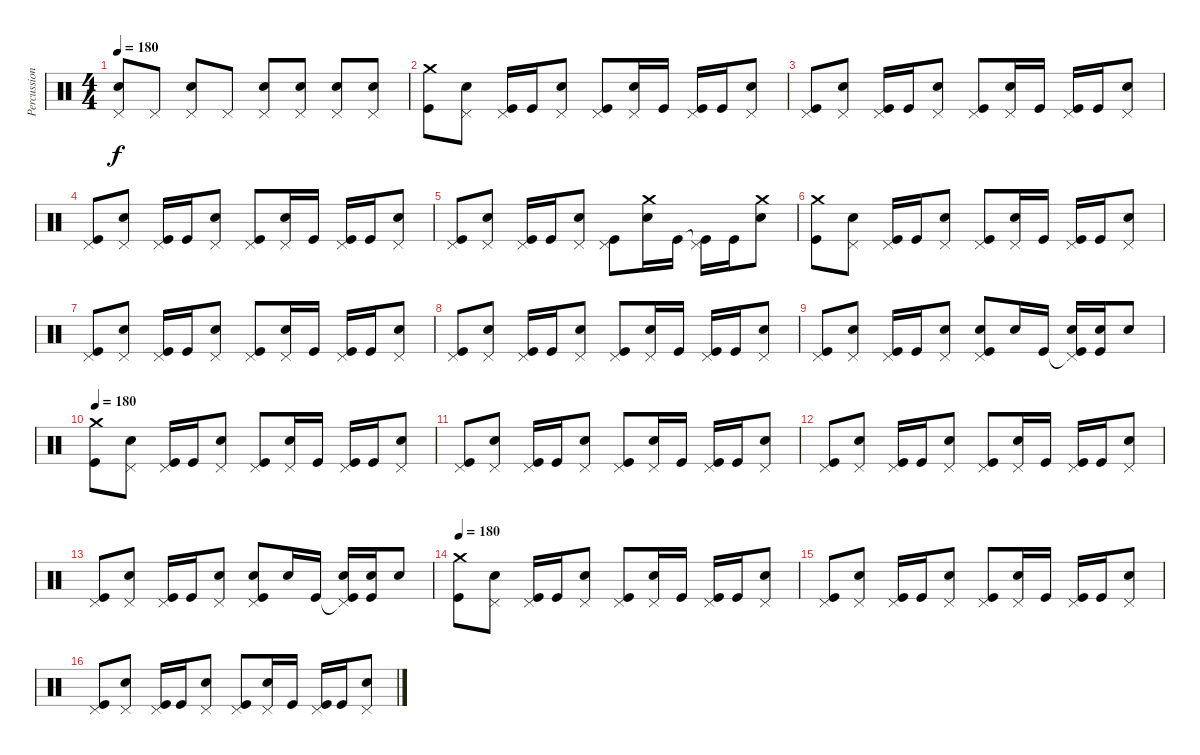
\track ("Percussion" "Percussion") {instrument percussion}
\staff {score}
\articulation defaults
\ts (4 4)
\tempo 180
\clef neutral
\ks c
("Pedal Hi-Hat (hit)" "Snare (hit) 2").8{dy f} "Pedal Hi-Hat (hit)".8 ("Pedal Hi-Hat (hit)" "Snare (hit) 2").8 "Pedal Hi-Hat (hit)".8 ("Pedal Hi-Hat (hit)" "Snare (hit) 2").8 ("Pedal Hi-Hat (hit)" "Snare (hit) 2").8 ("Pedal Hi-Hat (hit)" "Snare (hit) 2").8 ("Pedal Hi-Hat (hit)" "Snare (hit) 2").8 |
("Crash medium (hit)" "Kick (hit)").8 ("Pedal Hi-Hat (hit)" "Snare (hit) 2").8 ("Pedal Hi-Hat (hit)" "Kick (hit)").16 "Kick (hit)".16 ("Pedal Hi-Hat (hit)" "Snare (hit) 2").8 ("Pedal Hi-Hat (hit)" "Kick (hit)").8 ("Pedal Hi-Hat (hit)" "Snare (hit) 2").16 "Kick (hit)".16 ("Pedal Hi-Hat (hit)" "Kick (hit)").16 "Kick (hit)".16 ("Pedal Hi-Hat (hit)" "Snare (hit) 2").8 |
("Pedal Hi-Hat (hit)" "Kick (hit)").8 ("Pedal Hi-Hat (hit)" "Snare (hit) 2").8 ("Pedal Hi-Hat (hit)" "Kick (hit)").16 "Kick (hit)".16 ("Pedal Hi-Hat (hit)" "Snare (hit) 2").8 ("Pedal Hi-Hat (hit)" "Kick (hit)").8 ("Pedal Hi-Hat (hit)" "Snare (hit) 2").16 "Kick (hit)".16 ("Pedal Hi-Hat (hit)" "Kick (hit)").16 "Kick (hit)".16 ("Pedal Hi-Hat (hit)" "Snare (hit) 2").8 |
("Pedal Hi-Hat (hit)" "Kick (hit)").8 ("Pedal Hi-Hat (hit)" "Snare (hit) 2").8 ("Pedal Hi-Hat (hit)" "Kick (hit)").16 "Kick (hit)".16 ("Pedal Hi-Hat (hit)" "Snare (hit) 2").8 ("Pedal Hi-Hat (hit)" "Kick (hit)").8 ("Pedal Hi-Hat (hit)" "Snare (hit) 2").16 "Kick (hit)".16 ("Pedal Hi-Hat (hit)" "Kick (hit)").16 "Kick (hit)".16 ("Pedal Hi-Hat (hit)" "Snare (hit) 2").8 |
("Pedal Hi-Hat (hit)" "Kick (hit)").8 ("Pedal Hi-Hat (hit)" "Snare (hit) 2").8 ("Pedal Hi-Hat (hit)" "Kick (hit)").16 "Kick (hit)".16 ("Pedal Hi-Hat (hit)" "Snare (hit) 2").8 ("Pedal Hi-Hat (hit)" "Kick (hit)").8 ("Crash medium (hit)" "Snare (hit) 2").16 "Kick (hit)".16 ("Pedal Hi-Hat (hit)"{t} "Kick (hit)").16 "Kick (hit)".16 ("Crash medium (hit)" "Snare (hit) 2").8 |
("Crash medium (hit)" "Kick (hit)").8 ("Pedal Hi-Hat (hit)" "Snare (hit) 2").8 ("Pedal Hi-Hat (hit)" "Kick (hit)").16 "Kick (hit)".16 ("Pedal Hi-Hat (hit)" "Snare (hit) 2").8 ("Pedal Hi-Hat (hit)" "Kick (hit)").8 ("Pedal Hi-Hat (hit)" "Snare (hit) 2").16 "Kick (hit)".16 ("Pedal Hi-Hat (hit)" "Kick (hit)").16 "Kick (hit)".16 ("Pedal Hi-Hat (hit)" "Snare (hit) 2").8 |
("Pedal Hi-Hat (hit)" "Kick (hit)").8 ("Pedal Hi-Hat (hit)" "Snare (hit) 2").8 ("Pedal Hi-Hat (hit)" "Kick (hit)").16 "Kick (hit)".16 ("Pedal Hi-Hat (hit)" "Snare (hit) 2").8 ("Pedal Hi-Hat (hit)" "Kick (hit)").8 ("Pedal Hi-Hat (hit)" "Snare (hit) 2").16 "Kick (hit)".16 ("Pedal Hi-Hat (hit)" "Kick (hit)").16 "Kick (hit)".16 ("Pedal Hi-Hat (hit)" "Snare (hit) 2").8 |
("Pedal Hi-Hat (hit)" "Kick (hit)").8 ("Pedal Hi-Hat (hit)" "Snare (hit) 2").8 ("Pedal Hi-Hat (hit)" "Kick (hit)").16 "Kick (hit)".16 ("Pedal Hi-Hat (hit)" "Snare (hit) 2").8 ("Pedal Hi-Hat (hit)" "Kick (hit)").8 ("Pedal Hi-Hat (hit)" "Snare (hit) 2").16 "Kick (hit)".16 ("Pedal Hi-Hat (hit)" "Kick (hit)").16 "Kick (hit)".16 ("Pedal Hi-Hat (hit)" "Snare (hit) 2").8 |
("Pedal Hi-Hat (hit)" "Kick (hit)").8 ("Pedal Hi-Hat (hit)" "Snare (hit) 2").8 ("Pedal Hi-Hat (hit)" "Kick (hit)").16 "Kick (hit)".16 ("Pedal Hi-Hat (hit)" "Snare (hit) 2").8 ("Pedal Hi-Hat (hit)" "Snare (hit) 2" "Kick (hit)").8 "Snare (hit) 2".16 "Kick (hit)".16 ("Pedal Hi-Hat (hit)"{t} "Snare (hit) 2" "Kick (hit)").16 ("Snare (hit) 2" "Kick (hit)").16 "Snare (hit) 2".8 |
\tempo 180
("Crash medium (hit)" "Kick (hit)").8 ("Pedal Hi-Hat (hit)" "Snare (hit) 2").8 ("Pedal Hi-Hat (hit)" "Kick (hit)").16 "Kick (hit)".16 ("Pedal Hi-Hat (hit)" "Snare (hit) 2").8 ("Pedal Hi-Hat (hit)" "Kick (hit)").8 ("Pedal Hi-Hat (hit)" "Snare (hit) 2").16 "Kick (hit)".16 ("Pedal Hi-Hat (hit)" "Kick (hit)").16 "Kick (hit)".16 ("Pedal Hi-Hat (hit)" "Snare (hit) 2").8 |
("Pedal Hi-Hat (hit)" "Kick (hit)").8 ("Pedal Hi-Hat (hit)" "Snare (hit) 2").8 ("Pedal Hi-Hat (hit)" "Kick (hit)").16 "Kick (hit)".16 ("Pedal Hi-Hat (hit)" "Snare (hit) 2").8 ("Pedal Hi-Hat (hit)" "Kick (hit)").8 ("Pedal Hi-Hat (hit)" "Snare (hit) 2").16 "Kick (hit)".16 ("Pedal Hi-Hat (hit)" "Kick (hit)").16 "Kick (hit)".16 ("Pedal Hi-Hat (hit)" "Snare (hit) 2").8 |
("Pedal Hi-Hat (hit)" "Kick (hit)").8 ("Pedal Hi-Hat (hit)" "Snare (hit) 2").8 ("Pedal Hi-Hat (hit)" "Kick (hit)").16 "Kick (hit)".16 ("Pedal Hi-Hat (hit)" "Snare (hit) 2").8 ("Pedal Hi-Hat (hit)" "Kick (hit)").8 ("Pedal Hi-Hat (hit)" "Snare (hit) 2").16 "Kick (hit)".16 ("Pedal Hi-Hat (hit)" "Kick (hit)").16 "Kick (hit)".16 ("Pedal Hi-Hat (hit)" "Snare (hit) 2").8 |
("Pedal Hi-Hat (hit)" "Kick (hit)").8 ("Pedal Hi-Hat (hit)" "Snare (hit) 2").8 ("Pedal Hi-Hat (hit)" "Kick (hit)").16 "Kick (hit)".16 ("Pedal Hi-Hat (hit)" "Snare (hit) 2").8 ("Pedal Hi-Hat (hit)" "Snare (hit) 2" "Kick (hit)").8 "Snare (hit) 2".16 "Kick (hit)".16 ("Pedal Hi-Hat (hit)"{t} "Snare (hit) 2" "Kick (hit)").16 ("Snare (hit) 2" "Kick (hit)").16 "Snare (hit) 2".8 |
\tempo 180
("Crash medium (hit)" "Kick (hit)").8 ("Pedal Hi-Hat (hit)" "Snare (hit) 2").8 ("Pedal Hi-Hat (hit)" "Kick (hit)").16 "Kick (hit)".16 ("Pedal Hi-Hat (hit)" "Snare (hit) 2").8 ("Pedal Hi-Hat (hit)" "Kick (hit)").8 ("Pedal Hi-Hat (hit)" "Snare (hit) 2").16 "Kick (hit)".16 ("Pedal Hi-Hat (hit)" "Kick (hit)").16 "Kick (hit)".16 ("Pedal Hi-Hat (hit)" "Snare (hit) 2").8 |
("Pedal Hi-Hat (hit)" "Kick (hit)").8 ("Pedal Hi-Hat (hit)" "Snare (hit) 2").8 ("Pedal Hi-Hat (hit)" "Kick (hit)").16 "Kick (hit)".16 ("Pedal Hi-Hat (hit)" "Snare (hit) 2").8 ("Pedal Hi-Hat (hit)" "Kick (hit)").8 ("Pedal Hi-Hat (hit)" "Snare (hit) 2").16 "Kick (hit)".16 ("Pedal Hi-Hat (hit)" "Kick (hit)").16 "Kick (hit)".16 ("Pedal Hi-Hat (hit)" "Snare (hit) 2").8 |
("Pedal Hi-Hat (hit)" "Kick (hit)").8 ("Pedal Hi-Hat (hit)" "Snare (hit) 2").8 ("Pedal Hi-Hat (hit)" "Kick (hit)").16 "Kick (hit)".16 ("Pedal Hi-Hat (hit)" "Snare (hit) 2").8 ("Pedal Hi-Hat (hit)" "Kick (hit)").8 ("Pedal Hi-Hat (hit)" "Snare (hit) 2").16 "Kick (hit)".16 ("Pedal Hi-Hat (hit)" "Kick (hit)").16 "Kick (hit)".16 ("Pedal Hi-Hat (hit)" "Snare (hit) 2").8
